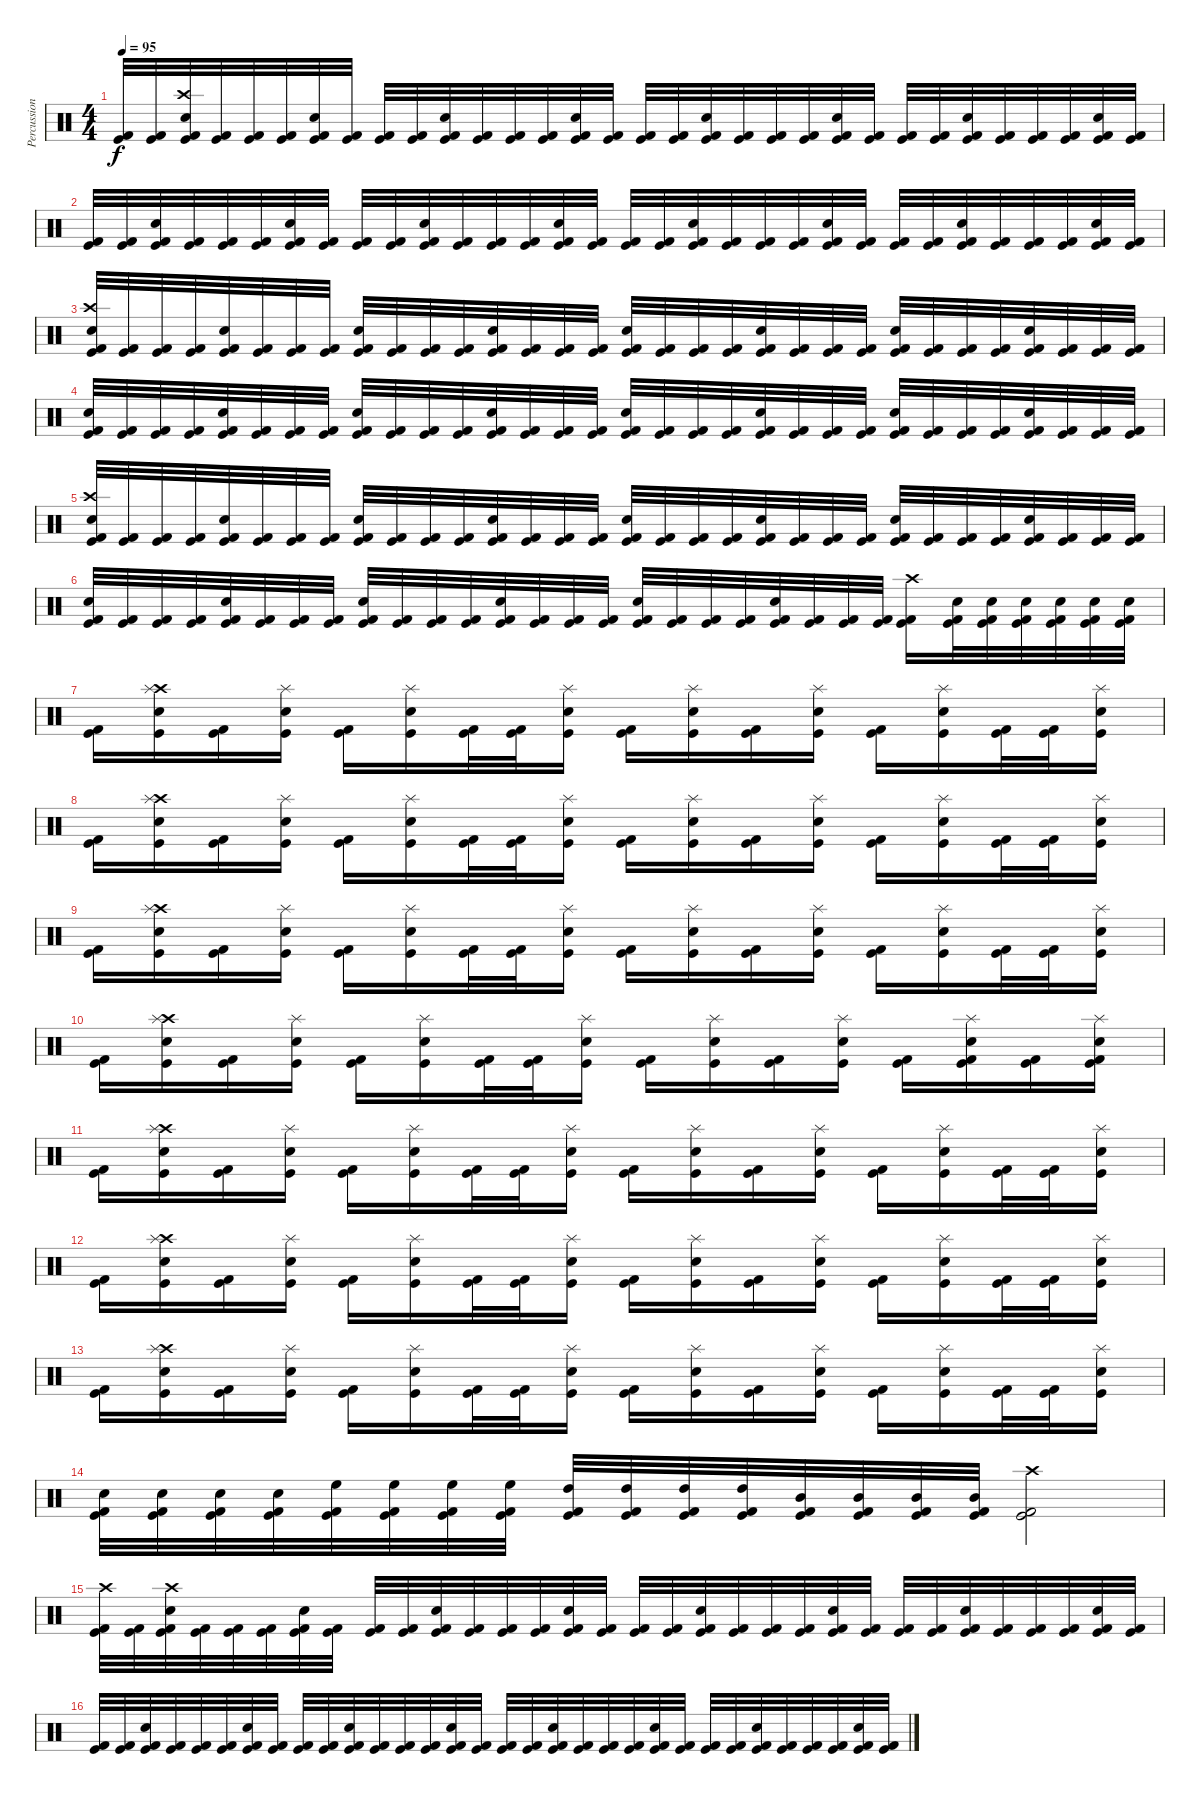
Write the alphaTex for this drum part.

\track ("Percussion" "Percussion") {instrument percussion}
\staff {score}
\articulation defaults
\ts (4 4)
\tempo 95
\clef neutral
\ks c
("Kick (hit) 2" "Kick (hit)").32{dy f} ("Kick (hit) 2" "Kick (hit)").32 ("Crash high (hit)" "Snare (hit) 2" "Kick (hit) 2" "Kick (hit)").32 ("Kick (hit) 2" "Kick (hit)").32 ("Kick (hit) 2" "Kick (hit)").32 ("Kick (hit) 2" "Kick (hit)").32 ("Snare (hit) 2" "Kick (hit) 2" "Kick (hit)").32 ("Kick (hit) 2" "Kick (hit)").32 ("Kick (hit) 2" "Kick (hit)").32 ("Kick (hit) 2" "Kick (hit)").32 ("Snare (hit) 2" "Kick (hit) 2" "Kick (hit)").32 ("Kick (hit) 2" "Kick (hit)").32 ("Kick (hit) 2" "Kick (hit)").32 ("Kick (hit) 2" "Kick (hit)").32 ("Snare (hit) 2" "Kick (hit) 2" "Kick (hit)").32 ("Kick (hit) 2" "Kick (hit)").32 ("Kick (hit) 2" "Kick (hit)").32 ("Kick (hit) 2" "Kick (hit)").32 ("Snare (hit) 2" "Kick (hit) 2" "Kick (hit)").32 ("Kick (hit) 2" "Kick (hit)").32 ("Kick (hit) 2" "Kick (hit)").32 ("Kick (hit) 2" "Kick (hit)").32 ("Snare (hit) 2" "Kick (hit) 2" "Kick (hit)").32 ("Kick (hit) 2" "Kick (hit)").32 ("Kick (hit) 2" "Kick (hit)").32 ("Kick (hit) 2" "Kick (hit)").32 ("Snare (hit) 2" "Kick (hit) 2" "Kick (hit)").32 ("Kick (hit) 2" "Kick (hit)").32 ("Kick (hit) 2" "Kick (hit)").32 ("Kick (hit) 2" "Kick (hit)").32 ("Snare (hit) 2" "Kick (hit) 2" "Kick (hit)").32 ("Kick (hit) 2" "Kick (hit)").32 |
("Kick (hit) 2" "Kick (hit)").32 ("Kick (hit) 2" "Kick (hit)").32 ("Snare (hit) 2" "Kick (hit) 2" "Kick (hit)").32 ("Kick (hit) 2" "Kick (hit)").32 ("Kick (hit) 2" "Kick (hit)").32 ("Kick (hit) 2" "Kick (hit)").32 ("Snare (hit) 2" "Kick (hit) 2" "Kick (hit)").32 ("Kick (hit) 2" "Kick (hit)").32 ("Kick (hit) 2" "Kick (hit)").32 ("Kick (hit) 2" "Kick (hit)").32 ("Snare (hit) 2" "Kick (hit) 2" "Kick (hit)").32 ("Kick (hit) 2" "Kick (hit)").32 ("Kick (hit) 2" "Kick (hit)").32 ("Kick (hit) 2" "Kick (hit)").32 ("Snare (hit) 2" "Kick (hit) 2" "Kick (hit)").32 ("Kick (hit) 2" "Kick (hit)").32 ("Kick (hit) 2" "Kick (hit)").32 ("Kick (hit) 2" "Kick (hit)").32 ("Snare (hit) 2" "Kick (hit) 2" "Kick (hit)").32 ("Kick (hit) 2" "Kick (hit)").32 ("Kick (hit) 2" "Kick (hit)").32 ("Kick (hit) 2" "Kick (hit)").32 ("Snare (hit) 2" "Kick (hit) 2" "Kick (hit)").32 ("Kick (hit) 2" "Kick (hit)").32 ("Kick (hit) 2" "Kick (hit)").32 ("Kick (hit) 2" "Kick (hit)").32 ("Snare (hit) 2" "Kick (hit) 2" "Kick (hit)").32 ("Kick (hit) 2" "Kick (hit)").32 ("Kick (hit) 2" "Kick (hit)").32 ("Kick (hit) 2" "Kick (hit)").32 ("Snare (hit) 2" "Kick (hit) 2" "Kick (hit)").32 ("Kick (hit) 2" "Kick (hit)").32 |
("Crash high (hit)" "Snare (hit) 2" "Kick (hit) 2" "Kick (hit)").32 ("Kick (hit) 2" "Kick (hit)").32 ("Kick (hit) 2" "Kick (hit)").32 ("Kick (hit) 2" "Kick (hit)").32 ("Snare (hit) 2" "Kick (hit) 2" "Kick (hit)").32 ("Kick (hit) 2" "Kick (hit)").32 ("Kick (hit) 2" "Kick (hit)").32 ("Kick (hit) 2" "Kick (hit)").32 ("Snare (hit) 2" "Kick (hit) 2" "Kick (hit)").32 ("Kick (hit) 2" "Kick (hit)").32 ("Kick (hit) 2" "Kick (hit)").32 ("Kick (hit) 2" "Kick (hit)").32 ("Snare (hit) 2" "Kick (hit) 2" "Kick (hit)").32 ("Kick (hit) 2" "Kick (hit)").32 ("Kick (hit) 2" "Kick (hit)").32 ("Kick (hit) 2" "Kick (hit)").32 ("Snare (hit) 2" "Kick (hit) 2" "Kick (hit)").32 ("Kick (hit) 2" "Kick (hit)").32 ("Kick (hit) 2" "Kick (hit)").32 ("Kick (hit) 2" "Kick (hit)").32 ("Snare (hit) 2" "Kick (hit) 2" "Kick (hit)").32 ("Kick (hit) 2" "Kick (hit)").32 ("Kick (hit) 2" "Kick (hit)").32 ("Kick (hit) 2" "Kick (hit)").32 ("Snare (hit) 2" "Kick (hit) 2" "Kick (hit)").32 ("Kick (hit) 2" "Kick (hit)").32 ("Kick (hit) 2" "Kick (hit)").32 ("Kick (hit) 2" "Kick (hit)").32 ("Snare (hit) 2" "Kick (hit) 2" "Kick (hit)").32 ("Kick (hit) 2" "Kick (hit)").32 ("Kick (hit) 2" "Kick (hit)").32 ("Kick (hit) 2" "Kick (hit)").32 |
("Snare (hit) 2" "Kick (hit) 2" "Kick (hit)").32 ("Kick (hit) 2" "Kick (hit)").32 ("Kick (hit) 2" "Kick (hit)").32 ("Kick (hit) 2" "Kick (hit)").32 ("Snare (hit) 2" "Kick (hit) 2" "Kick (hit)").32 ("Kick (hit) 2" "Kick (hit)").32 ("Kick (hit) 2" "Kick (hit)").32 ("Kick (hit) 2" "Kick (hit)").32 ("Snare (hit) 2" "Kick (hit) 2" "Kick (hit)").32 ("Kick (hit) 2" "Kick (hit)").32 ("Kick (hit) 2" "Kick (hit)").32 ("Kick (hit) 2" "Kick (hit)").32 ("Snare (hit) 2" "Kick (hit) 2" "Kick (hit)").32 ("Kick (hit) 2" "Kick (hit)").32 ("Kick (hit) 2" "Kick (hit)").32 ("Kick (hit) 2" "Kick (hit)").32 ("Snare (hit) 2" "Kick (hit) 2" "Kick (hit)").32 ("Kick (hit) 2" "Kick (hit)").32 ("Kick (hit) 2" "Kick (hit)").32 ("Kick (hit) 2" "Kick (hit)").32 ("Snare (hit) 2" "Kick (hit) 2" "Kick (hit)").32 ("Kick (hit) 2" "Kick (hit)").32 ("Kick (hit) 2" "Kick (hit)").32 ("Kick (hit) 2" "Kick (hit)").32 ("Snare (hit) 2" "Kick (hit) 2" "Kick (hit)").32 ("Kick (hit) 2" "Kick (hit)").32 ("Kick (hit) 2" "Kick (hit)").32 ("Kick (hit) 2" "Kick (hit)").32 ("Snare (hit) 2" "Kick (hit) 2" "Kick (hit)").32 ("Kick (hit) 2" "Kick (hit)").32 ("Kick (hit) 2" "Kick (hit)").32 ("Kick (hit) 2" "Kick (hit)").32 |
("Crash high (hit)" "Snare (hit) 2" "Kick (hit) 2" "Kick (hit)").32 ("Kick (hit) 2" "Kick (hit)").32 ("Kick (hit) 2" "Kick (hit)").32 ("Kick (hit) 2" "Kick (hit)").32 ("Snare (hit) 2" "Kick (hit) 2" "Kick (hit)").32 ("Kick (hit) 2" "Kick (hit)").32 ("Kick (hit) 2" "Kick (hit)").32 ("Kick (hit) 2" "Kick (hit)").32 ("Snare (hit) 2" "Kick (hit) 2" "Kick (hit)").32 ("Kick (hit) 2" "Kick (hit)").32 ("Kick (hit) 2" "Kick (hit)").32 ("Kick (hit) 2" "Kick (hit)").32 ("Snare (hit) 2" "Kick (hit) 2" "Kick (hit)").32 ("Kick (hit) 2" "Kick (hit)").32 ("Kick (hit) 2" "Kick (hit)").32 ("Kick (hit) 2" "Kick (hit)").32 ("Snare (hit) 2" "Kick (hit) 2" "Kick (hit)").32 ("Kick (hit) 2" "Kick (hit)").32 ("Kick (hit) 2" "Kick (hit)").32 ("Kick (hit) 2" "Kick (hit)").32 ("Snare (hit) 2" "Kick (hit) 2" "Kick (hit)").32 ("Kick (hit) 2" "Kick (hit)").32 ("Kick (hit) 2" "Kick (hit)").32 ("Kick (hit) 2" "Kick (hit)").32 ("Snare (hit) 2" "Kick (hit) 2" "Kick (hit)").32 ("Kick (hit) 2" "Kick (hit)").32 ("Kick (hit) 2" "Kick (hit)").32 ("Kick (hit) 2" "Kick (hit)").32 ("Snare (hit) 2" "Kick (hit) 2" "Kick (hit)").32 ("Kick (hit) 2" "Kick (hit)").32 ("Kick (hit) 2" "Kick (hit)").32 ("Kick (hit) 2" "Kick (hit)").32 |
("Snare (hit) 2" "Kick (hit) 2" "Kick (hit)").32 ("Kick (hit) 2" "Kick (hit)").32 ("Kick (hit) 2" "Kick (hit)").32 ("Kick (hit) 2" "Kick (hit)").32 ("Snare (hit) 2" "Kick (hit) 2" "Kick (hit)").32 ("Kick (hit) 2" "Kick (hit)").32 ("Kick (hit) 2" "Kick (hit)").32 ("Kick (hit) 2" "Kick (hit)").32 ("Snare (hit) 2" "Kick (hit) 2" "Kick (hit)").32 ("Kick (hit) 2" "Kick (hit)").32 ("Kick (hit) 2" "Kick (hit)").32 ("Kick (hit) 2" "Kick (hit)").32 ("Snare (hit) 2" "Kick (hit) 2" "Kick (hit)").32 ("Kick (hit) 2" "Kick (hit)").32 ("Kick (hit) 2" "Kick (hit)").32 ("Kick (hit) 2" "Kick (hit)").32 ("Snare (hit) 2" "Kick (hit) 2" "Kick (hit)").32 ("Kick (hit) 2" "Kick (hit)").32 ("Kick (hit) 2" "Kick (hit)").32 ("Kick (hit) 2" "Kick (hit)").32 ("Snare (hit) 2" "Kick (hit) 2" "Kick (hit)").32 ("Kick (hit) 2" "Kick (hit)").32 ("Kick (hit) 2" "Kick (hit)").32 ("Kick (hit) 2" "Kick (hit)").32 ("Crash high (hit)" "Kick (hit) 2" "Kick (hit)").16 ("Snare (hit) 2" "Kick (hit) 2" "Kick (hit)").32 ("Snare (hit) 2" "Kick (hit) 2" "Kick (hit)").32 ("Snare (hit) 2" "Kick (hit) 2" "Kick (hit)").32 ("Snare (hit) 2" "Kick (hit) 2" "Kick (hit)").32 ("Snare (hit) 2" "Kick (hit) 2" "Kick (hit)").32 ("Snare (hit) 2" "Kick (hit) 2" "Kick (hit)").32 |
("Kick (hit)" "Kick (hit) 2").16 ("Snare (hit) 2" "Kick (hit)" "Crash high (hit)" "Splash (hit)").16 ("Kick (hit)" "Kick (hit) 2").16 ("Snare (hit) 2" "Kick (hit)" "Splash (hit)").16 ("Kick (hit)" "Kick (hit) 2").16 ("Snare (hit) 2" "Kick (hit)" "Splash (hit)").16 ("Kick (hit)" "Kick (hit) 2").32 ("Kick (hit)" "Kick (hit) 2").32 ("Snare (hit) 2" "Kick (hit)" "Splash (hit)").16 ("Kick (hit)" "Kick (hit) 2").16 ("Snare (hit) 2" "Kick (hit)" "Splash (hit)").16 ("Kick (hit)" "Kick (hit) 2").16 ("Snare (hit) 2" "Kick (hit)" "Splash (hit)").16 ("Kick (hit)" "Kick (hit) 2").16 ("Snare (hit) 2" "Kick (hit)" "Splash (hit)").16 ("Kick (hit)" "Kick (hit) 2").32 ("Kick (hit)" "Kick (hit) 2").32 ("Snare (hit) 2" "Kick (hit)" "Splash (hit)").16 |
("Kick (hit)" "Kick (hit) 2").16 ("Snare (hit) 2" "Kick (hit)" "Crash high (hit)" "Splash (hit)").16 ("Kick (hit)" "Kick (hit) 2").16 ("Snare (hit) 2" "Kick (hit)" "Splash (hit)").16 ("Kick (hit)" "Kick (hit) 2").16 ("Snare (hit) 2" "Kick (hit)" "Splash (hit)").16 ("Kick (hit)" "Kick (hit) 2").32 ("Kick (hit)" "Kick (hit) 2").32 ("Snare (hit) 2" "Kick (hit)" "Splash (hit)").16 ("Kick (hit)" "Kick (hit) 2").16 ("Snare (hit) 2" "Kick (hit)" "Splash (hit)").16 ("Kick (hit)" "Kick (hit) 2").16 ("Snare (hit) 2" "Kick (hit)" "Splash (hit)").16 ("Kick (hit)" "Kick (hit) 2").16 ("Snare (hit) 2" "Kick (hit)" "Splash (hit)").16 ("Kick (hit)" "Kick (hit) 2").32 ("Kick (hit)" "Kick (hit) 2").32 ("Snare (hit) 2" "Kick (hit)" "Splash (hit)").16 |
("Kick (hit)" "Kick (hit) 2").16 ("Snare (hit) 2" "Kick (hit)" "Crash high (hit)" "Splash (hit)").16 ("Kick (hit)" "Kick (hit) 2").16 ("Snare (hit) 2" "Kick (hit)" "Splash (hit)").16 ("Kick (hit)" "Kick (hit) 2").16 ("Snare (hit) 2" "Kick (hit)" "Splash (hit)").16 ("Kick (hit)" "Kick (hit) 2").32 ("Kick (hit)" "Kick (hit) 2").32 ("Snare (hit) 2" "Kick (hit)" "Splash (hit)").16 ("Kick (hit)" "Kick (hit) 2").16 ("Snare (hit) 2" "Kick (hit)" "Splash (hit)").16 ("Kick (hit)" "Kick (hit) 2").16 ("Snare (hit) 2" "Kick (hit)" "Splash (hit)").16 ("Kick (hit)" "Kick (hit) 2").16 ("Snare (hit) 2" "Kick (hit)" "Splash (hit)").16 ("Kick (hit)" "Kick (hit) 2").32 ("Kick (hit)" "Kick (hit) 2").32 ("Snare (hit) 2" "Kick (hit)" "Splash (hit)").16 |
("Kick (hit)" "Kick (hit) 2").16 ("Snare (hit) 2" "Kick (hit)" "Crash high (hit)" "Splash (hit)").16 ("Kick (hit)" "Kick (hit) 2").16 ("Snare (hit) 2" "Kick (hit)" "Splash (hit)").16 ("Kick (hit)" "Kick (hit) 2").16 ("Snare (hit) 2" "Kick (hit)" "Splash (hit)").16 ("Kick (hit)" "Kick (hit) 2").32 ("Kick (hit)" "Kick (hit) 2").32 ("Snare (hit) 2" "Kick (hit)" "Splash (hit)").16 ("Kick (hit)" "Kick (hit) 2").16 ("Snare (hit) 2" "Kick (hit)" "Splash (hit)").16 ("Kick (hit)" "Kick (hit) 2").16 ("Snare (hit) 2" "Kick (hit)" "Splash (hit)").16 ("Kick (hit) 2" "Kick (hit)").16 ("Splash (hit)" "Snare (hit) 2" "Kick (hit) 2" "Kick (hit)").16 ("Kick (hit) 2" "Kick (hit)").16 ("Splash (hit)" "Snare (hit) 2" "Kick (hit) 2" "Kick (hit)").16 |
("Kick (hit)" "Kick (hit) 2").16 ("Snare (hit) 2" "Kick (hit)" "Crash high (hit)" "Splash (hit)").16 ("Kick (hit)" "Kick (hit) 2").16 ("Snare (hit) 2" "Kick (hit)" "Splash (hit)").16 ("Kick (hit)" "Kick (hit) 2").16 ("Snare (hit) 2" "Kick (hit)" "Splash (hit)").16 ("Kick (hit)" "Kick (hit) 2").32 ("Kick (hit)" "Kick (hit) 2").32 ("Snare (hit) 2" "Kick (hit)" "Splash (hit)").16 ("Kick (hit)" "Kick (hit) 2").16 ("Snare (hit) 2" "Kick (hit)" "Splash (hit)").16 ("Kick (hit)" "Kick (hit) 2").16 ("Snare (hit) 2" "Kick (hit)" "Splash (hit)").16 ("Kick (hit)" "Kick (hit) 2").16 ("Snare (hit) 2" "Kick (hit)" "Splash (hit)").16 ("Kick (hit)" "Kick (hit) 2").32 ("Kick (hit)" "Kick (hit) 2").32 ("Snare (hit) 2" "Kick (hit)" "Splash (hit)").16 |
("Kick (hit)" "Kick (hit) 2").16 ("Snare (hit) 2" "Kick (hit)" "Crash high (hit)" "Splash (hit)").16 ("Kick (hit)" "Kick (hit) 2").16 ("Snare (hit) 2" "Kick (hit)" "Splash (hit)").16 ("Kick (hit)" "Kick (hit) 2").16 ("Snare (hit) 2" "Kick (hit)" "Splash (hit)").16 ("Kick (hit)" "Kick (hit) 2").32 ("Kick (hit)" "Kick (hit) 2").32 ("Snare (hit) 2" "Kick (hit)" "Splash (hit)").16 ("Kick (hit)" "Kick (hit) 2").16 ("Snare (hit) 2" "Kick (hit)" "Splash (hit)").16 ("Kick (hit)" "Kick (hit) 2").16 ("Snare (hit) 2" "Kick (hit)" "Splash (hit)").16 ("Kick (hit)" "Kick (hit) 2").16 ("Snare (hit) 2" "Kick (hit)" "Splash (hit)").16 ("Kick (hit)" "Kick (hit) 2").32 ("Kick (hit)" "Kick (hit) 2").32 ("Snare (hit) 2" "Kick (hit)" "Splash (hit)").16 |
("Kick (hit)" "Kick (hit) 2").16 ("Snare (hit) 2" "Kick (hit)" "Crash high (hit)" "Splash (hit)").16 ("Kick (hit)" "Kick (hit) 2").16 ("Snare (hit) 2" "Kick (hit)" "Splash (hit)").16 ("Kick (hit)" "Kick (hit) 2").16 ("Snare (hit) 2" "Kick (hit)" "Splash (hit)").16 ("Kick (hit)" "Kick (hit) 2").32 ("Kick (hit)" "Kick (hit) 2").32 ("Snare (hit) 2" "Kick (hit)" "Splash (hit)").16 ("Kick (hit)" "Kick (hit) 2").16 ("Snare (hit) 2" "Kick (hit)" "Splash (hit)").16 ("Kick (hit)" "Kick (hit) 2").16 ("Snare (hit) 2" "Kick (hit)" "Splash (hit)").16 ("Kick (hit)" "Kick (hit) 2").16 ("Snare (hit) 2" "Kick (hit)" "Splash (hit)").16 ("Kick (hit)" "Kick (hit) 2").32 ("Kick (hit)" "Kick (hit) 2").32 ("Snare (hit) 2" "Kick (hit)" "Splash (hit)").16 |
("Kick (hit) 2" "Kick (hit)" "Snare (hit) 2").32 ("Kick (hit) 2" "Kick (hit)" "Snare (hit) 2").32 ("Kick (hit) 2" "Kick (hit)" "Snare (hit) 2").32 ("Kick (hit) 2" "Kick (hit)" "Snare (hit) 2").32 ("Kick (hit) 2" "Kick (hit)" "High Floor Tom (hit)").32 ("Kick (hit) 2" "Kick (hit)" "High Floor Tom (hit)").32 ("Kick (hit) 2" "Kick (hit)" "High Floor Tom (hit)").32 ("Kick (hit) 2" "Kick (hit)" "High Floor Tom (hit)").32 ("Kick (hit) 2" "Kick (hit)" "High Tom (hit)").32 ("Kick (hit) 2" "Kick (hit)" "High Tom (hit)").32 ("Kick (hit) 2" "Kick (hit)" "High Tom (hit)").32 ("Kick (hit) 2" "Kick (hit)" "High Tom (hit)").32 ("Kick (hit) 2" "Kick (hit)" "Mid Tom (hit)").32 ("Kick (hit) 2" "Kick (hit)" "Mid Tom (hit)").32 ("Kick (hit) 2" "Kick (hit)" "Mid Tom (hit)").32 ("Kick (hit) 2" "Kick (hit)" "Mid Tom (hit)").32 ("Kick (hit) 2" "Kick (hit)" "Crash high (hit)").2 |
("Crash high (hit)" "Kick (hit)" "Kick (hit) 2").32 ("Kick (hit)" "Kick (hit) 2").32 ("Crash high (hit)" "Snare (hit) 2" "Kick (hit)" "Kick (hit) 2").32 ("Kick (hit)" "Kick (hit) 2").32 ("Kick (hit)" "Kick (hit) 2").32 ("Kick (hit)" "Kick (hit) 2").32 ("Snare (hit) 2" "Kick (hit)" "Kick (hit) 2").32 ("Kick (hit)" "Kick (hit) 2").32 ("Kick (hit)" "Kick (hit) 2").32 ("Kick (hit)" "Kick (hit) 2").32 ("Snare (hit) 2" "Kick (hit)" "Kick (hit) 2").32 ("Kick (hit)" "Kick (hit) 2").32 ("Kick (hit)" "Kick (hit) 2").32 ("Kick (hit)" "Kick (hit) 2").32 ("Snare (hit) 2" "Kick (hit)" "Kick (hit) 2").32 ("Kick (hit)" "Kick (hit) 2").32 ("Kick (hit) 2" "Kick (hit)").32 ("Kick (hit) 2" "Kick (hit)").32 ("Snare (hit) 2" "Kick (hit) 2" "Kick (hit)").32 ("Kick (hit) 2" "Kick (hit)").32 ("Kick (hit) 2" "Kick (hit)").32 ("Kick (hit) 2" "Kick (hit)").32 ("Snare (hit) 2" "Kick (hit) 2" "Kick (hit)").32 ("Kick (hit) 2" "Kick (hit)").32 ("Kick (hit) 2" "Kick (hit)").32 ("Kick (hit) 2" "Kick (hit)").32 ("Snare (hit) 2" "Kick (hit) 2" "Kick (hit)").32 ("Kick (hit) 2" "Kick (hit)").32 ("Kick (hit) 2" "Kick (hit)").32 ("Kick (hit) 2" "Kick (hit)").32 ("Snare (hit) 2" "Kick (hit) 2" "Kick (hit)").32 ("Kick (hit) 2" "Kick (hit)").32 |
("Kick (hit) 2" "Kick (hit)").32 ("Kick (hit) 2" "Kick (hit)").32 ("Snare (hit) 2" "Kick (hit) 2" "Kick (hit)").32 ("Kick (hit) 2" "Kick (hit)").32 ("Kick (hit) 2" "Kick (hit)").32 ("Kick (hit) 2" "Kick (hit)").32 ("Snare (hit) 2" "Kick (hit) 2" "Kick (hit)").32 ("Kick (hit) 2" "Kick (hit)").32 ("Kick (hit) 2" "Kick (hit)").32 ("Kick (hit) 2" "Kick (hit)").32 ("Snare (hit) 2" "Kick (hit) 2" "Kick (hit)").32 ("Kick (hit) 2" "Kick (hit)").32 ("Kick (hit) 2" "Kick (hit)").32 ("Kick (hit) 2" "Kick (hit)").32 ("Snare (hit) 2" "Kick (hit) 2" "Kick (hit)").32 ("Kick (hit) 2" "Kick (hit)").32 ("Kick (hit) 2" "Kick (hit)").32 ("Kick (hit) 2" "Kick (hit)").32 ("Snare (hit) 2" "Kick (hit) 2" "Kick (hit)").32 ("Kick (hit) 2" "Kick (hit)").32 ("Kick (hit) 2" "Kick (hit)").32 ("Kick (hit) 2" "Kick (hit)").32 ("Snare (hit) 2" "Kick (hit) 2" "Kick (hit)").32 ("Kick (hit) 2" "Kick (hit)").32 ("Kick (hit) 2" "Kick (hit)").32 ("Kick (hit) 2" "Kick (hit)").32 ("Snare (hit) 2" "Kick (hit) 2" "Kick (hit)").32 ("Kick (hit) 2" "Kick (hit)").32 ("Kick (hit) 2" "Kick (hit)").32 ("Kick (hit) 2" "Kick (hit)").32 ("Snare (hit) 2" "Kick (hit) 2" "Kick (hit)").32 ("Kick (hit) 2" "Kick (hit)").32
